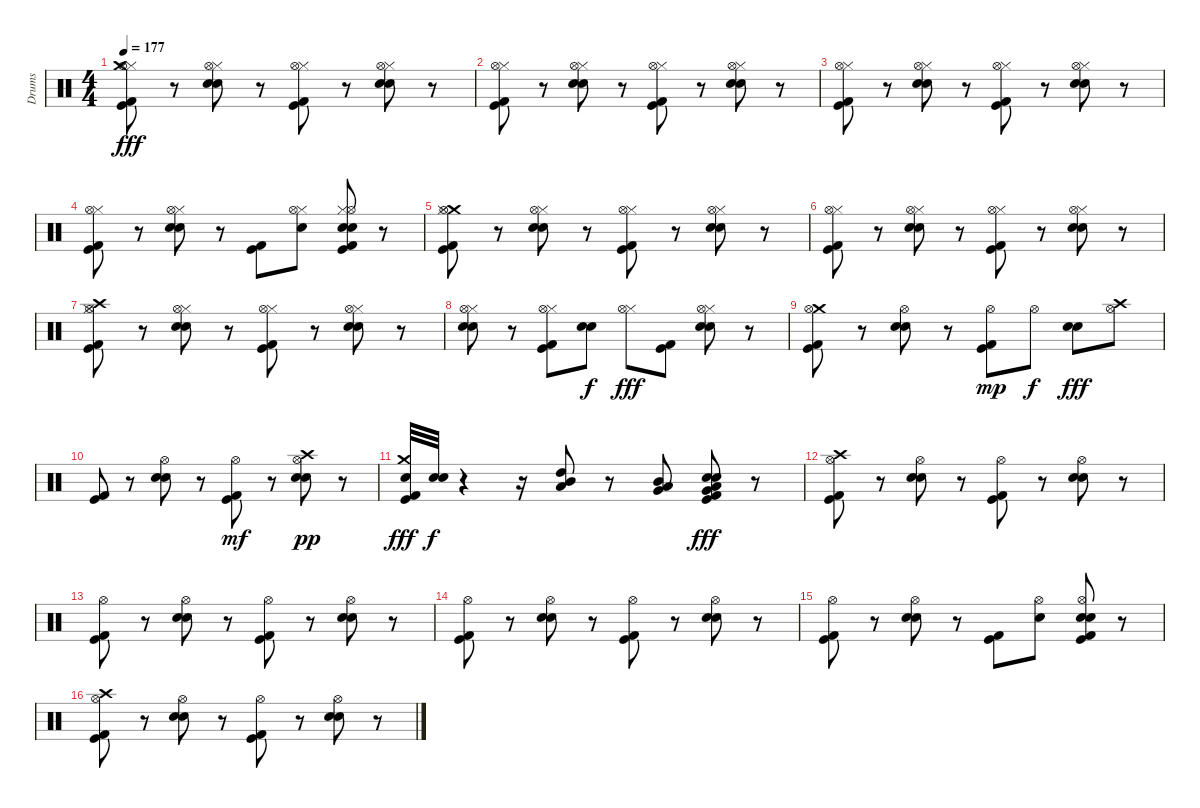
\track ("Drums" "Drums") {instrument percussion}
\staff {score}
\articulation defaults
\ts (4 4)
\tempo 177
\clef neutral
\ks c
("Kick (hit) 2" "Kick (hit)" "Hi-Hat (closed)" "Hi-Hat (open)" "Crash medium (hit)").8{dy fff} r.8 ("Electric Snare (hit)" "Snare (hit) 2" "Hi-Hat (closed)" "Hi-Hat (open)").8 r.8 ("Kick (hit) 2" "Kick (hit)" "Hi-Hat (closed)" "Hi-Hat (open)").8 r.8 ("Electric Snare (hit)" "Snare (hit) 2" "Hi-Hat (closed)" "Hi-Hat (open)").8 r.8 |
("Kick (hit) 2" "Kick (hit)" "Hi-Hat (closed)" "Hi-Hat (open)").8 r.8 ("Electric Snare (hit)" "Snare (hit) 2" "Hi-Hat (closed)" "Hi-Hat (open)").8 r.8 ("Kick (hit) 2" "Kick (hit)" "Hi-Hat (closed)" "Hi-Hat (open)").8 r.8 ("Electric Snare (hit)" "Snare (hit) 2" "Hi-Hat (closed)" "Hi-Hat (open)").8 r.8 |
("Kick (hit) 2" "Kick (hit)" "Hi-Hat (closed)" "Hi-Hat (open)").8 r.8 ("Electric Snare (hit)" "Snare (hit) 2" "Hi-Hat (closed)" "Hi-Hat (open)").8 r.8 ("Kick (hit) 2" "Kick (hit)" "Hi-Hat (closed)" "Hi-Hat (open)").8 r.8 ("Electric Snare (hit)" "Snare (hit) 2" "Hi-Hat (closed)" "Hi-Hat (open)").8 r.8 |
("Kick (hit) 2" "Kick (hit)" "Hi-Hat (closed)" "Hi-Hat (open)").8 r.8 ("Electric Snare (hit)" "Snare (hit) 2" "Hi-Hat (closed)" "Hi-Hat (open)").8 r.8 ("Kick (hit) 2" "Kick (hit)").8 ("Electric Snare (hit)" "Hi-Hat (closed)" "Hi-Hat (open)").8 ("Hi-Hat (closed)" "Hi-Hat (open)" "Kick (hit) 2" "Kick (hit)" "Electric Snare (hit)" "Snare (hit) 2").8 r.8 |
("Crash medium (hit)" "Kick (hit) 2" "Kick (hit)" "Hi-Hat (closed)" "Hi-Hat (open)").8 r.8 ("Electric Snare (hit)" "Snare (hit) 2" "Hi-Hat (closed)" "Hi-Hat (open)").8 r.8 ("Kick (hit) 2" "Kick (hit)" "Hi-Hat (closed)" "Hi-Hat (open)").8 r.8 ("Electric Snare (hit)" "Snare (hit) 2" "Hi-Hat (closed)" "Hi-Hat (open)").8 r.8 |
("Kick (hit) 2" "Kick (hit)" "Hi-Hat (closed)" "Hi-Hat (open)").8 r.8 ("Electric Snare (hit)" "Snare (hit) 2" "Hi-Hat (closed)" "Hi-Hat (open)").8 r.8 ("Kick (hit) 2" "Kick (hit)" "Hi-Hat (closed)" "Hi-Hat (open)").8 r.8 ("Electric Snare (hit)" "Snare (hit) 2" "Hi-Hat (closed)" "Hi-Hat (open)").8 r.8 |
("Crash high (hit)" "Kick (hit) 2" "Kick (hit)" "Hi-Hat (closed)" "Hi-Hat (open)").8 r.8 ("Electric Snare (hit)" "Snare (hit) 2" "Hi-Hat (closed)" "Hi-Hat (open)").8 r.8 ("Kick (hit) 2" "Kick (hit)" "Hi-Hat (closed)" "Hi-Hat (open)").8 r.8 ("Electric Snare (hit)" "Snare (hit) 2" "Hi-Hat (closed)" "Hi-Hat (open)").8 r.8 |
("Hi-Hat (closed)" "Hi-Hat (open)" "Electric Snare (hit)" "Snare (hit) 2").8 r.8 ("Hi-Hat (closed)" "Hi-Hat (open)" "Kick (hit) 2" "Kick (hit)").8 ("Electric Snare (hit)" "Snare (hit) 2").8{dy f} ("Hi-Hat (closed)" "Hi-Hat (open)").8{dy fff} ("Kick (hit) 2" "Kick (hit)").8 ("Electric Snare (hit)" "Snare (hit) 2" "Hi-Hat (closed)" "Hi-Hat (open)").8 r.8 |
("Kick (hit) 2" "Kick (hit)" "Crash medium (hit)" "Hi-Hat (open)").8 r.8 ("Hi-Hat (open)" "Electric Snare (hit)" "Snare (hit) 2").8 r.8 ("Kick (hit) 2" "Kick (hit)" "Hi-Hat (open)").8{dy mp} "Hi-Hat (open)".8{dy f} ("Electric Snare (hit)" "Snare (hit) 2").8{dy fff} ("Crash high (hit)" "Hi-Hat (open)").8 |
("Kick (hit) 2" "Kick (hit)").8 r.8 ("Electric Snare (hit)" "Snare (hit) 2" "Hi-Hat (open)").8 r.8 ("Kick (hit) 2" "Kick (hit)" "Hi-Hat (open)").8{dy mf} r.8 ("Electric Snare (hit)" "Snare (hit) 2" "Hi-Hat (open)" "Crash high (hit)").8{dy pp} r.8 |
("Crash medium (hit)" "Kick (hit) 2" "Kick (hit)" "Electric Snare (hit)").32{dy fff} ("Electric Snare (hit)" "Snare (hit) 2").32{dy f} r.4 r.16 ("Low Tom (hit)" "High Tom (hit)" "Mid Tom (hit)").8 r.8 ("Mid Tom (hit)" "Low Tom (hit)" "Very Low Tom (hit)").8 ("Electric Snare (hit)" "Snare (hit) 2" "Kick (hit)" "Kick (hit) 2" "Low Tom (hit)" "Very Low Tom (hit)").8{dy fff} r.8 |
("Hi-Hat (open)" "Kick (hit) 2" "Kick (hit)" "Crash high (hit)").8 r.8 ("Hi-Hat (open)" "Electric Snare (hit)" "Snare (hit) 2").8 r.8 ("Hi-Hat (open)" "Kick (hit) 2" "Kick (hit)").8 r.8 ("Hi-Hat (open)" "Electric Snare (hit)" "Snare (hit) 2").8 r.8 |
("Hi-Hat (open)" "Kick (hit) 2" "Kick (hit)").8 r.8 ("Hi-Hat (open)" "Electric Snare (hit)" "Snare (hit) 2").8 r.8 ("Hi-Hat (open)" "Kick (hit) 2" "Kick (hit)").8 r.8 ("Hi-Hat (open)" "Electric Snare (hit)" "Snare (hit) 2").8 r.8 |
("Hi-Hat (open)" "Kick (hit) 2" "Kick (hit)").8 r.8 ("Hi-Hat (open)" "Electric Snare (hit)" "Snare (hit) 2").8 r.8 ("Hi-Hat (open)" "Kick (hit) 2" "Kick (hit)").8 r.8 ("Hi-Hat (open)" "Electric Snare (hit)" "Snare (hit) 2").8 r.8 |
("Hi-Hat (open)" "Kick (hit)" "Kick (hit) 2").8 r.8 ("Hi-Hat (open)" "Electric Snare (hit)" "Snare (hit) 2").8 r.8 ("Kick (hit) 2" "Kick (hit)").8 ("Hi-Hat (open)" "Snare (hit) 2").8 ("Hi-Hat (open)" "Electric Snare (hit)" "Snare (hit) 2" "Kick (hit) 2" "Kick (hit)").8 r.8 |
("Hi-Hat (open)" "Kick (hit) 2" "Kick (hit)" "Crash high (hit)").8 r.8 ("Hi-Hat (open)" "Electric Snare (hit)" "Snare (hit) 2").8 r.8 ("Hi-Hat (open)" "Kick (hit) 2" "Kick (hit)").8 r.8 ("Hi-Hat (open)" "Electric Snare (hit)" "Snare (hit) 2").8 r.8
